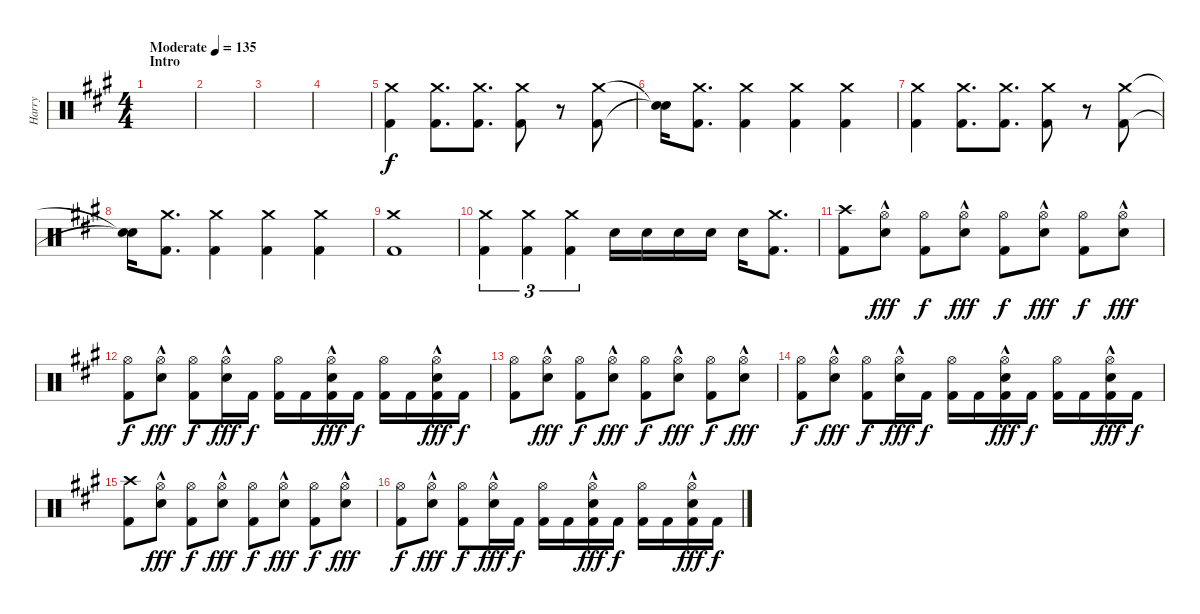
\track ("Harry" "Harry") {instrument percussion}
\staff {score}
\articulation defaults
\ts (4 4)
\section ("" "Intro")
\tempo (135 "Moderate")
\clef neutral
\ks a
|
|
|
|
("Crash medium (hit)" "Kick (hit) 2").4 ("Crash medium (hit)" "Kick (hit) 2").8{d} ("Crash medium (hit)" "Kick (hit) 2").8{d} ("Crash medium (hit)" "Kick (hit) 2").8 r.8 ("Crash medium (hit)" "Kick (hit) 2").8 |
("Snare (hit)"{t} "Snare (hit)"{t}).16 ("Crash medium (hit)" "Kick (hit) 2").8{d} ("Crash medium (hit)" "Kick (hit) 2").4 ("Crash medium (hit)" "Kick (hit) 2").4 ("Crash medium (hit)" "Kick (hit) 2").4 |
("Crash medium (hit)" "Kick (hit) 2").4 ("Crash medium (hit)" "Kick (hit) 2").8{d} ("Crash medium (hit)" "Kick (hit) 2").8{d} ("Crash medium (hit)" "Kick (hit) 2").8 r.8 ("Crash medium (hit)" "Kick (hit) 2").8 |
("Snare (hit)"{t} "Snare (hit)"{t}).16 ("Crash medium (hit)" "Kick (hit) 2").8{d} ("Crash medium (hit)" "Kick (hit) 2").4 ("Crash medium (hit)" "Kick (hit) 2").4 ("Crash medium (hit)" "Kick (hit) 2").4 |
("Crash medium (hit)" "Kick (hit) 2").1 |
("Crash medium (hit)" "Kick (hit) 2").4{tu (3 2)} ("Crash medium (hit)" "Kick (hit) 2").4{tu (3 2)} ("Crash medium (hit)" "Kick (hit) 2").4{tu (3 2)} "Snare (hit) 2".16 "Snare (hit) 2".16 "Snare (hit) 2".16 "Snare (hit) 2".16 "Snare (hit) 2".16 ("Crash medium (hit)" "Kick (hit) 2").8{d} |
("Crash high (hit)" "Kick (hit) 2").8 ("Hi-Hat (open)"{hac} "Snare (hit) 2"{hac}).8{dy fff} ("Hi-Hat (open)" "Kick (hit) 2").8{dy f} ("Hi-Hat (open)"{hac} "Snare (hit) 2"{hac}).8{dy fff} ("Hi-Hat (open)" "Kick (hit) 2").8{dy f} ("Hi-Hat (open)"{hac} "Snare (hit) 2"{hac}).8{dy fff} ("Hi-Hat (open)" "Kick (hit) 2").8{dy f} ("Hi-Hat (open)"{hac} "Snare (hit) 2"{hac}).8{dy fff} |
("Hi-Hat (open)" "Kick (hit) 2").8{dy f} ("Hi-Hat (open)"{hac} "Snare (hit) 2"{hac}).8{dy fff} ("Hi-Hat (open)" "Kick (hit) 2").8{dy f} ("Hi-Hat (open)"{hac} "Snare (hit) 2"{hac}).16{dy fff} "Kick (hit) 2".16{dy f} ("Hi-Hat (open)" "Kick (hit) 2").16 "Kick (hit) 2".16 ("Snare (hit) 2"{hac} "Hi-Hat (open)"{hac} "Kick (hit) 2"{hac}).16{dy fff} "Kick (hit) 2".16{dy f} ("Hi-Hat (open)" "Kick (hit) 2").16 "Kick (hit) 2".16 ("Snare (hit) 2"{hac} "Hi-Hat (open)"{hac} "Kick (hit) 2"{hac}).16{dy fff} "Kick (hit) 2".16{dy f} |
("Hi-Hat (open)" "Kick (hit) 2").8 ("Hi-Hat (open)"{hac} "Snare (hit) 2"{hac}).8{dy fff} ("Hi-Hat (open)" "Kick (hit) 2").8{dy f} ("Hi-Hat (open)"{hac} "Snare (hit) 2"{hac}).8{dy fff} ("Hi-Hat (open)" "Kick (hit) 2").8{dy f} ("Hi-Hat (open)"{hac} "Snare (hit) 2"{hac}).8{dy fff} ("Hi-Hat (open)" "Kick (hit) 2").8{dy f} ("Hi-Hat (open)"{hac} "Snare (hit) 2"{hac}).8{dy fff} |
("Hi-Hat (open)" "Kick (hit) 2").8{dy f} ("Hi-Hat (open)"{hac} "Snare (hit) 2"{hac}).8{dy fff} ("Hi-Hat (open)" "Kick (hit) 2").8{dy f} ("Hi-Hat (open)"{hac} "Snare (hit) 2"{hac}).16{dy fff} "Kick (hit) 2".16{dy f} ("Hi-Hat (open)" "Kick (hit) 2").16 "Kick (hit) 2".16 ("Snare (hit) 2"{hac} "Hi-Hat (open)"{hac} "Kick (hit) 2"{hac}).16{dy fff} "Kick (hit) 2".16{dy f} ("Hi-Hat (open)" "Kick (hit) 2").16 "Kick (hit) 2".16 ("Snare (hit) 2"{hac} "Hi-Hat (open)"{hac} "Kick (hit) 2"{hac}).16{dy fff} "Kick (hit) 2".16{dy f} |
("Crash high (hit)" "Kick (hit) 2").8 ("Hi-Hat (open)"{hac} "Snare (hit) 2"{hac}).8{dy fff} ("Hi-Hat (open)" "Kick (hit) 2").8{dy f} ("Hi-Hat (open)"{hac} "Snare (hit) 2"{hac}).8{dy fff} ("Hi-Hat (open)" "Kick (hit) 2").8{dy f} ("Hi-Hat (open)"{hac} "Snare (hit) 2"{hac}).8{dy fff} ("Hi-Hat (open)" "Kick (hit) 2").8{dy f} ("Hi-Hat (open)"{hac} "Snare (hit) 2"{hac}).8{dy fff} |
("Hi-Hat (open)" "Kick (hit) 2").8{dy f} ("Hi-Hat (open)"{hac} "Snare (hit) 2"{hac}).8{dy fff} ("Hi-Hat (open)" "Kick (hit) 2").8{dy f} ("Hi-Hat (open)"{hac} "Snare (hit) 2"{hac}).16{dy fff} "Kick (hit) 2".16{dy f} ("Hi-Hat (open)" "Kick (hit) 2").16 "Kick (hit) 2".16 ("Snare (hit) 2"{hac} "Hi-Hat (open)"{hac} "Kick (hit) 2"{hac}).16{dy fff} "Kick (hit) 2".16{dy f} ("Hi-Hat (open)" "Kick (hit) 2").16 "Kick (hit) 2".16 ("Snare (hit) 2"{hac} "Hi-Hat (open)"{hac} "Kick (hit) 2"{hac}).16{dy fff} "Kick (hit) 2".16{dy f}
